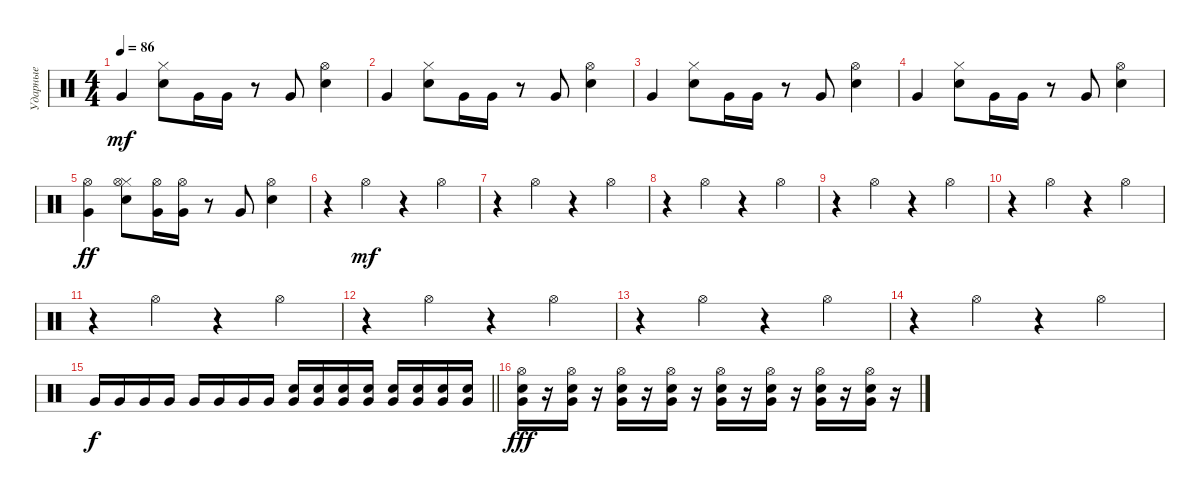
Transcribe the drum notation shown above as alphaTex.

\track ("Ударные" "Ударные") {instrument percussion}
\staff {score}
\articulation defaults
\ts (4 4)
\tempo 86
\clef neutral
\ks c "Very Low Tom (hit)".4{dy mf}
("Hi-Hat (closed)" "Electric Snare (hit)").8 "Very Low Tom (hit)".16 "Very Low Tom (hit)".16 r.8 "Very Low Tom (hit)".8 ("Hi-Hat (open)" "Electric Snare (hit)").4 |
"Very Low Tom (hit)".4 ("Hi-Hat (closed)" "Electric Snare (hit)").8 "Very Low Tom (hit)".16 "Very Low Tom (hit)".16 r.8 "Very Low Tom (hit)".8 ("Hi-Hat (open)" "Electric Snare (hit)").4 |
"Very Low Tom (hit)".4 ("Hi-Hat (closed)" "Electric Snare (hit)").8 "Very Low Tom (hit)".16 "Very Low Tom (hit)".16 r.8 "Very Low Tom (hit)".8 ("Hi-Hat (open)" "Electric Snare (hit)").4 |
"Very Low Tom (hit)".4 ("Hi-Hat (closed)" "Electric Snare (hit)").8 "Very Low Tom (hit)".16 "Very Low Tom (hit)".16 r.8 "Very Low Tom (hit)".8 ("Hi-Hat (open)" "Electric Snare (hit)").4 |
("Hi-Hat (open)" "Very Low Tom (hit)").4{dy ff} ("Hi-Hat (closed)" "Hi-Hat (open)" "Electric Snare (hit)").8 ("Hi-Hat (open)" "Very Low Tom (hit)").16 ("Hi-Hat (open)" "Very Low Tom (hit)").16 r.8 "Very Low Tom (hit)".8 ("Hi-Hat (open)" "Electric Snare (hit)").4 |
r.4 "Hi-Hat (open)".4{dy mf} r.4 "Hi-Hat (open)".4 |
r.4 "Hi-Hat (open)".4 r.4 "Hi-Hat (open)".4 |
r.4 "Hi-Hat (open)".4 r.4 "Hi-Hat (open)".4 |
r.4 "Hi-Hat (open)".4 r.4 "Hi-Hat (open)".4 |
r.4 "Hi-Hat (open)".4 r.4 "Hi-Hat (open)".4 |
r.4 "Hi-Hat (open)".4 r.4 "Hi-Hat (open)".4 |
r.4 "Hi-Hat (open)".4 r.4 "Hi-Hat (open)".4 |
r.4 "Hi-Hat (open)".4 r.4 "Hi-Hat (open)".4 |
r.4 "Hi-Hat (open)".4 r.4 "Hi-Hat (open)".4{volume 6} |
\barLineRight lightlight "Very Low Tom (hit)".16{dy f volume 16} "Very Low Tom (hit)".16 "Very Low Tom (hit)".16 "Very Low Tom (hit)".16 "Very Low Tom (hit)".16 "Very Low Tom (hit)".16 "Very Low Tom (hit)".16 "Very Low Tom (hit)".16
("Electric Snare (hit)" "Very Low Tom (hit)").16 ("Electric Snare (hit)" "Very Low Tom (hit)").16 ("Electric Snare (hit)" "Very Low Tom (hit)").16 ("Electric Snare (hit)" "Very Low Tom (hit)").16 ("Electric Snare (hit)" "Very Low Tom (hit)").16 ("Electric Snare (hit)" "Very Low Tom (hit)").16 ("Electric Snare (hit)" "Very Low Tom (hit)").16 ("Electric Snare (hit)" "Very Low Tom (hit)").16 |
("Hi-Hat (open)" "Very Low Tom (hit)" "Electric Snare (hit)").16{dy fff} r.16 ("Hi-Hat (open)" "Very Low Tom (hit)" "Electric Snare (hit)").16 r.16 ("Hi-Hat (open)" "Very Low Tom (hit)" "Electric Snare (hit)").16 r.16 ("Hi-Hat (open)" "Very Low Tom (hit)" "Electric Snare (hit)").16 r.16 ("Hi-Hat (open)" "Very Low Tom (hit)" "Electric Snare (hit)").16 r.16 ("Hi-Hat (open)" "Very Low Tom (hit)" "Electric Snare (hit)").16 r.16 ("Hi-Hat (open)" "Very Low Tom (hit)" "Electric Snare (hit)").16 r.16 ("Hi-Hat (open)" "Very Low Tom (hit)" "Electric Snare (hit)").16 r.16
